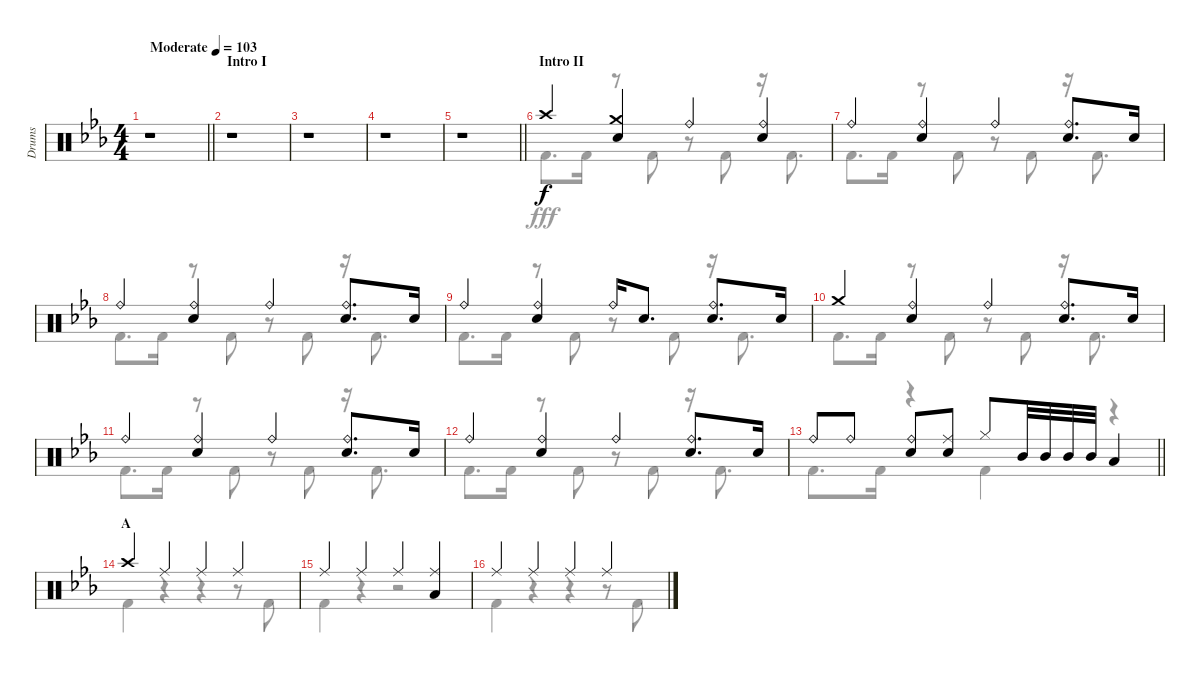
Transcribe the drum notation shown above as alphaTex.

\track ("Drums" "Drums") {instrument percussion}
\staff {score}
\articulation defaults
\voice
\ts (4 4)
\tempo (103 "Moderate")
\clef neutral
\barLineRight lightlight
\ks eb
r.1{dy f} |
\section ("" "Intro I")
r.1 |
r.1 |
r.1 |
\barLineRight lightlight
r.1 |
\section ("" "Intro II")
"Crash high (hit)".4 ("Crash medium (hit)" "Snare (hit) 2").4 "Ride (bell)".4 ("Ride (bell)" "Snare (hit) 2").4 |
"Ride (bell)".4 ("Ride (bell)" "Snare (hit) 2").4 "Ride (bell)".4 ("Ride (bell)" "Snare (hit) 2").8{d} "Snare (hit) 2".16 |
"Ride (bell)".4 ("Ride (bell)" "Snare (hit) 2").4 "Ride (bell)".4 ("Ride (bell)" "Snare (hit) 2").8{d} "Snare (hit) 2".16 |
"Ride (bell)".4 ("Ride (bell)" "Snare (hit) 2").4 "Ride (bell)".16 "Snare (hit) 2".8{d} ("Ride (bell)" "Snare (hit) 2").8{d} "Snare (hit) 2".16 |
"Crash medium (hit)".4 ("Ride (bell)" "Snare (hit) 2").4 "Ride (bell)".4 ("Ride (bell)" "Snare (hit) 2").8{d} "Snare (hit) 2".16 |
"Ride (bell)".4 ("Ride (bell)" "Snare (hit) 2").4 "Ride (bell)".4 ("Ride (bell)" "Snare (hit) 2").8{d} "Snare (hit) 2".16 |
"Ride (bell)".4 ("Ride (bell)" "Snare (hit) 2").4 "Ride (bell)".4 ("Ride (bell)" "Snare (hit) 2").8{d} "Snare (hit) 2".16 |
\barLineRight lightlight "Ride (bell)".8 "Ride (bell)".8
("Ride (bell)" "Snare (hit) 2").8 ("Ride (middle)" "Snare (hit) 2").8 "Hi-Hat (closed)".8 "Mid Tom (hit)".32 "Mid Tom (hit)".32 "Mid Tom (hit)".32 "Mid Tom (hit)".32 "Low Tom (hit)".4 |
\section ("" "A")
"Crash high (hit)".4 "Ride (middle)".4 "Ride (middle)".4 "Ride (middle)".4 |
"Ride (middle)".4 "Ride (middle)".4 "Ride (middle)".4 ("Ride (middle)" "Low Tom (hit)").4 |
"Ride (middle)".4 "Ride (middle)".4 "Ride (middle)".4 "Ride (middle)".4
\voice
\clef neutral
\ottava regular
\simile none
\barLineRight lightlight
\ks eb
r.1{dy fff} |
r.1 |
r.1 |
r.1 |
\barLineRight lightlight
r.1 |
"Kick (hit) 2".8{d} "Kick (hit) 2".16 r.8 "Kick (hit) 2".8 r.8 "Kick (hit) 2".8 r.16 "Kick (hit) 2".8{d} |
"Kick (hit) 2".8{d} "Kick (hit) 2".16 r.8 "Kick (hit) 2".8 r.8 "Kick (hit) 2".8 r.16 "Kick (hit) 2".8{d} |
"Kick (hit) 2".8{d} "Kick (hit) 2".16 r.8 "Kick (hit) 2".8 r.8 "Kick (hit) 2".8 r.16 "Kick (hit) 2".8{d} |
"Kick (hit) 2".8{d} "Kick (hit) 2".16 r.8 "Kick (hit) 2".8 r.8 "Kick (hit) 2".8 r.16 "Kick (hit) 2".8{d} |
"Kick (hit) 2".8{d} "Kick (hit) 2".16 r.8 "Kick (hit) 2".8 r.8 "Kick (hit) 2".8 r.16 "Kick (hit) 2".8{d} |
"Kick (hit) 2".8{d} "Kick (hit) 2".16 r.8 "Kick (hit) 2".8 r.8 "Kick (hit) 2".8 r.16 "Kick (hit) 2".8{d} |
"Kick (hit) 2".8{d} "Kick (hit) 2".16 r.8 "Kick (hit) 2".8 r.8 "Kick (hit) 2".8 r.16 "Kick (hit) 2".8{d} |
\barLineRight lightlight "Kick (hit) 2".8{d} "Kick (hit) 2".16
r.4 "Kick (hit) 2".4 r.4 |
"Kick (hit) 2".4 r.4 r.4 r.8 "Kick (hit) 2".8 |
"Kick (hit) 2".4 r.4 r.2 |
"Kick (hit) 2".4 r.4 r.4 r.8 "Kick (hit) 2".8
